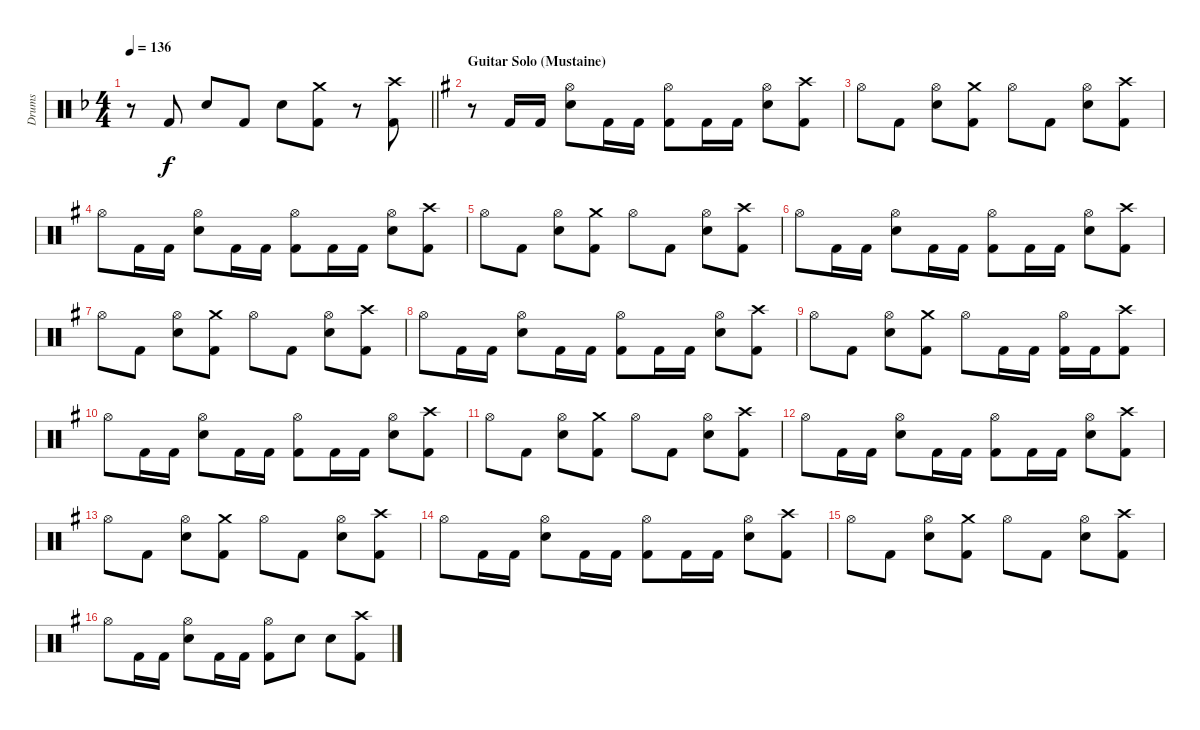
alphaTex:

\track ("Drums" "Drums") {instrument percussion}
\staff {score}
\articulation defaults
\ts (4 4)
\tempo 136
\clef neutral
\barLineRight lightlight
\ks dminor
r.8{dy f} "Kick (hit) 2".8 "Snare (hit) 2".8 "Kick (hit) 2".8 "Snare (hit) 2".8 ("Crash medium (hit)" "Kick (hit) 2").8 r.8 ("Crash high (hit)" "Kick (hit) 2").8 |
\section ("" "Guitar Solo (Mustaine)")
\ks eminor
r.8 "Kick (hit) 2".16 "Kick (hit) 2".16 ("Hi-Hat (open)" "Snare (hit) 2").8 "Kick (hit) 2".16 "Kick (hit) 2".16 ("Hi-Hat (open)" "Kick (hit) 2").8 "Kick (hit) 2".16 "Kick (hit) 2".16 ("Hi-Hat (open)" "Snare (hit) 2").8 ("Crash high (hit)" "Kick (hit) 2").8 |
"Hi-Hat (open)".8 "Kick (hit) 2".8 ("Hi-Hat (open)" "Snare (hit) 2").8 ("Crash medium (hit)" "Kick (hit) 2").8 "Hi-Hat (open)".8 "Kick (hit) 2".8 ("Hi-Hat (open)" "Snare (hit) 2").8 ("Crash high (hit)" "Kick (hit) 2").8 |
"Hi-Hat (open)".8 "Kick (hit) 2".16 "Kick (hit) 2".16 ("Hi-Hat (open)" "Snare (hit) 2").8 "Kick (hit) 2".16 "Kick (hit) 2".16 ("Hi-Hat (open)" "Kick (hit) 2").8 "Kick (hit) 2".16 "Kick (hit) 2".16 ("Hi-Hat (open)" "Snare (hit) 2").8 ("Crash high (hit)" "Kick (hit) 2").8 |
"Hi-Hat (open)".8 "Kick (hit) 2".8 ("Hi-Hat (open)" "Snare (hit) 2").8 ("Crash medium (hit)" "Kick (hit) 2").8 "Hi-Hat (open)".8 "Kick (hit) 2".8 ("Hi-Hat (open)" "Snare (hit) 2").8 ("Crash high (hit)" "Kick (hit) 2").8 |
"Hi-Hat (open)".8 "Kick (hit) 2".16 "Kick (hit) 2".16 ("Hi-Hat (open)" "Snare (hit) 2").8 "Kick (hit) 2".16 "Kick (hit) 2".16 ("Hi-Hat (open)" "Kick (hit) 2").8 "Kick (hit) 2".16 "Kick (hit) 2".16 ("Hi-Hat (open)" "Snare (hit) 2").8 ("Crash high (hit)" "Kick (hit) 2").8 |
"Hi-Hat (open)".8 "Kick (hit) 2".8 ("Hi-Hat (open)" "Snare (hit) 2").8 ("Crash medium (hit)" "Kick (hit) 2").8 "Hi-Hat (open)".8 "Kick (hit) 2".8 ("Hi-Hat (open)" "Snare (hit) 2").8 ("Crash high (hit)" "Kick (hit) 2").8 |
"Hi-Hat (open)".8 "Kick (hit) 2".16 "Kick (hit) 2".16 ("Hi-Hat (open)" "Snare (hit) 2").8 "Kick (hit) 2".16 "Kick (hit) 2".16 ("Hi-Hat (open)" "Kick (hit) 2").8 "Kick (hit) 2".16 "Kick (hit) 2".16 ("Hi-Hat (open)" "Snare (hit) 2").8 ("Crash high (hit)" "Kick (hit) 2").8 |
"Hi-Hat (open)".8 "Kick (hit) 2".8 ("Hi-Hat (open)" "Snare (hit) 2").8 ("Crash medium (hit)" "Kick (hit) 2").8 "Hi-Hat (open)".8 "Kick (hit) 2".16 "Kick (hit) 2".16 ("Hi-Hat (open)" "Kick (hit) 2").16 "Kick (hit) 2".16 ("Crash high (hit)" "Kick (hit) 2").8 |
"Hi-Hat (open)".8 "Kick (hit) 2".16 "Kick (hit) 2".16 ("Hi-Hat (open)" "Snare (hit) 2").8 "Kick (hit) 2".16 "Kick (hit) 2".16 ("Hi-Hat (open)" "Kick (hit) 2").8 "Kick (hit) 2".16 "Kick (hit) 2".16 ("Hi-Hat (open)" "Snare (hit) 2").8 ("Crash high (hit)" "Kick (hit) 2").8 |
"Hi-Hat (open)".8 "Kick (hit) 2".8 ("Hi-Hat (open)" "Snare (hit) 2").8 ("Crash medium (hit)" "Kick (hit) 2").8 "Hi-Hat (open)".8 "Kick (hit) 2".8 ("Hi-Hat (open)" "Snare (hit) 2").8 ("Crash high (hit)" "Kick (hit) 2").8 |
"Hi-Hat (open)".8 "Kick (hit) 2".16 "Kick (hit) 2".16 ("Hi-Hat (open)" "Snare (hit) 2").8 "Kick (hit) 2".16 "Kick (hit) 2".16 ("Hi-Hat (open)" "Kick (hit) 2").8 "Kick (hit) 2".16 "Kick (hit) 2".16 ("Hi-Hat (open)" "Snare (hit) 2").8 ("Crash high (hit)" "Kick (hit) 2").8 |
"Hi-Hat (open)".8 "Kick (hit) 2".8 ("Hi-Hat (open)" "Snare (hit) 2").8 ("Crash medium (hit)" "Kick (hit) 2").8 "Hi-Hat (open)".8 "Kick (hit) 2".8 ("Hi-Hat (open)" "Snare (hit) 2").8 ("Crash high (hit)" "Kick (hit) 2").8 |
"Hi-Hat (open)".8 "Kick (hit) 2".16 "Kick (hit) 2".16 ("Hi-Hat (open)" "Snare (hit) 2").8 "Kick (hit) 2".16 "Kick (hit) 2".16 ("Hi-Hat (open)" "Kick (hit) 2").8 "Kick (hit) 2".16 "Kick (hit) 2".16 ("Hi-Hat (open)" "Snare (hit) 2").8 ("Crash high (hit)" "Kick (hit) 2").8 |
"Hi-Hat (open)".8 "Kick (hit) 2".8 ("Hi-Hat (open)" "Snare (hit) 2").8 ("Crash medium (hit)" "Kick (hit) 2").8 "Hi-Hat (open)".8 "Kick (hit) 2".8 ("Hi-Hat (open)" "Snare (hit) 2").8 ("Crash high (hit)" "Kick (hit) 2").8 |
"Hi-Hat (open)".8 "Kick (hit) 2".16 "Kick (hit) 2".16 ("Hi-Hat (open)" "Snare (hit) 2").8 "Kick (hit) 2".16 "Kick (hit) 2".16 ("Hi-Hat (open)" "Kick (hit) 2").8 "Snare (hit) 2".8 "Snare (hit) 2".8 ("Crash high (hit)" "Kick (hit) 2").8
